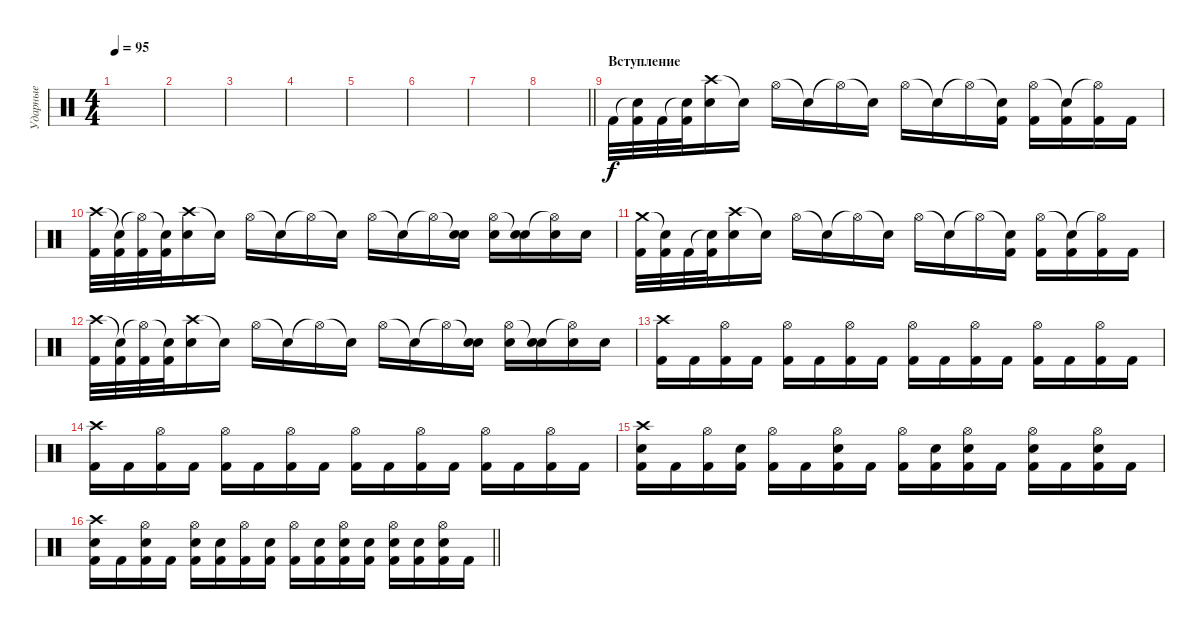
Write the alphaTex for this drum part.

\track ("Ударные" "Ударные") {instrument percussion}
\staff {score}
\articulation defaults
\ts (4 4)
\tempo 95
\clef neutral
\ks c
|
|
|
|
|
|
|
\barLineRight lightlight
|
\section ("" "Вступление")
"Kick (hit) 2".32 ("Snare (hit)"{t} "Kick (hit) 2").32 "Kick (hit) 2".32 ("Snare (hit)"{t} "Kick (hit) 2").32 ("Crash high (hit)" "Electric Snare (hit)").16 "Snare (hit)"{t}.16 "Hi-Hat (open)".16 "Snare (hit)"{t}.16 "Hi-Hat (open)"{t}.16 "Snare (hit)"{t}.16 "Hi-Hat (open)".16 "Snare (hit)"{t}.16 "Hi-Hat (open)"{t}.16 ("Snare (hit)"{t} "Kick (hit) 2").16 ("Hi-Hat (open)" "Kick (hit) 2").16 ("Snare (hit)"{t} "Kick (hit) 2").16 ("Hi-Hat (open)"{t} "Kick (hit) 2").16 "Kick (hit) 2".16 |
("Crash high (hit)" "Kick (hit) 2").32 ("Snare (hit)"{t} "Kick (hit) 2").32 ("Hi-Hat (open)"{t} "Kick (hit) 2").32 ("Snare (hit)"{t} "Kick (hit) 2").32 ("Crash high (hit)" "Electric Snare (hit)").16 "Snare (hit)"{t}.16 "Hi-Hat (open)".16 "Snare (hit)"{t}.16 "Hi-Hat (open)"{t}.16 "Snare (hit)"{t}.16 "Hi-Hat (open)".16 "Snare (hit)"{t}.16 "Hi-Hat (open)"{t}.16 ("Snare (hit)"{t} "Electric Snare (hit)").16 ("Hi-Hat (open)" "Electric Snare (hit)").16 ("Snare (hit)"{t} "Electric Snare (hit)").16 ("Hi-Hat (open)"{t} "Electric Snare (hit)").16 "Electric Snare (hit)".16 |
("Crash medium (hit)" "Kick (hit) 2").32 ("Snare (hit)"{t} "Kick (hit) 2").32 "Kick (hit) 2".32 ("Snare (hit)"{t} "Kick (hit) 2").32 ("Crash high (hit)" "Electric Snare (hit)").16 "Snare (hit)"{t}.16 "Hi-Hat (open)".16 "Snare (hit)"{t}.16 "Hi-Hat (open)"{t}.16 "Snare (hit)"{t}.16 "Hi-Hat (open)".16 "Snare (hit)"{t}.16 "Hi-Hat (open)"{t}.16 ("Snare (hit)"{t} "Kick (hit) 2").16 ("Hi-Hat (open)" "Kick (hit) 2").16 ("Snare (hit)"{t} "Kick (hit) 2").16 ("Hi-Hat (open)"{t} "Kick (hit) 2").16 "Kick (hit) 2".16 |
("Crash high (hit)" "Kick (hit) 2").32 ("Snare (hit)"{t} "Kick (hit) 2").32 ("Hi-Hat (open)"{t} "Kick (hit) 2").32 ("Snare (hit)"{t} "Kick (hit) 2").32 ("Crash high (hit)" "Electric Snare (hit)").16 "Snare (hit)"{t}.16 "Hi-Hat (open)".16 "Snare (hit)"{t}.16 "Hi-Hat (open)"{t}.16 "Snare (hit)"{t}.16 "Hi-Hat (open)".16 "Snare (hit)"{t}.16 "Hi-Hat (open)"{t}.16 ("Snare (hit)"{t} "Electric Snare (hit)").16 ("Hi-Hat (open)" "Electric Snare (hit)").16 ("Snare (hit)"{t} "Electric Snare (hit)").16 ("Hi-Hat (open)"{t} "Electric Snare (hit)").16 "Electric Snare (hit)".16 |
("Crash high (hit)" "Kick (hit) 2").16 "Kick (hit) 2".16 ("Hi-Hat (open)" "Kick (hit) 2").16 "Kick (hit) 2".16 ("Hi-Hat (open)" "Kick (hit) 2").16 "Kick (hit) 2".16 ("Hi-Hat (open)" "Kick (hit) 2").16 "Kick (hit) 2".16 ("Hi-Hat (open)" "Kick (hit) 2").16 "Kick (hit) 2".16 ("Hi-Hat (open)" "Kick (hit) 2").16 "Kick (hit) 2".16 ("Hi-Hat (open)" "Kick (hit) 2").16 "Kick (hit) 2".16 ("Hi-Hat (open)" "Kick (hit) 2").16 "Kick (hit) 2".16 |
("Crash high (hit)" "Kick (hit) 2").16 "Kick (hit) 2".16 ("Hi-Hat (open)" "Kick (hit) 2").16 "Kick (hit) 2".16 ("Hi-Hat (open)" "Kick (hit) 2").16 "Kick (hit) 2".16 ("Hi-Hat (open)" "Kick (hit) 2").16 "Kick (hit) 2".16 ("Hi-Hat (open)" "Kick (hit) 2").16 "Kick (hit) 2".16 ("Hi-Hat (open)" "Kick (hit) 2").16 "Kick (hit) 2".16 ("Hi-Hat (open)" "Kick (hit) 2").16 "Kick (hit) 2".16 ("Hi-Hat (open)" "Kick (hit) 2").16 "Kick (hit) 2".16 |
("Crash high (hit)" "Electric Snare (hit)" "Kick (hit) 2").16 "Kick (hit) 2".16 ("Hi-Hat (open)" "Kick (hit) 2").16 ("Electric Snare (hit)" "Kick (hit) 2").16 ("Hi-Hat (open)" "Kick (hit) 2").16 "Kick (hit) 2".16 ("Hi-Hat (open)" "Electric Snare (hit)" "Kick (hit) 2").16 "Kick (hit) 2".16 ("Hi-Hat (open)" "Kick (hit) 2").16 ("Electric Snare (hit)" "Kick (hit) 2").16 ("Hi-Hat (open)" "Electric Snare (hit)" "Kick (hit) 2").16 "Kick (hit) 2".16 ("Hi-Hat (open)" "Electric Snare (hit)" "Kick (hit) 2").16 "Kick (hit) 2".16 ("Hi-Hat (open)" "Electric Snare (hit)" "Kick (hit) 2").16 "Kick (hit) 2".16 |
\barLineRight lightlight
("Crash high (hit)" "Electric Snare (hit)" "Kick (hit) 2").16 "Kick (hit) 2".16 ("Hi-Hat (open)" "Electric Snare (hit)" "Kick (hit) 2").16 "Kick (hit) 2".16 ("Hi-Hat (open)" "Electric Snare (hit)" "Kick (hit) 2").16 ("Electric Snare (hit)" "Kick (hit) 2").16 ("Hi-Hat (open)" "Kick (hit) 2").16 ("Electric Snare (hit)" "Kick (hit) 2").16 ("Hi-Hat (open)" "Kick (hit) 2").16 ("Electric Snare (hit)" "Kick (hit) 2").16 ("Hi-Hat (open)" "Electric Snare (hit)" "Kick (hit) 2").16 ("Electric Snare (hit)" "Kick (hit) 2").16 ("Hi-Hat (open)" "Electric Snare (hit)" "Kick (hit) 2").16 ("Electric Snare (hit)" "Kick (hit) 2").16 ("Hi-Hat (open)" "Electric Snare (hit)" "Kick (hit) 2").16 "Kick (hit) 2".16
